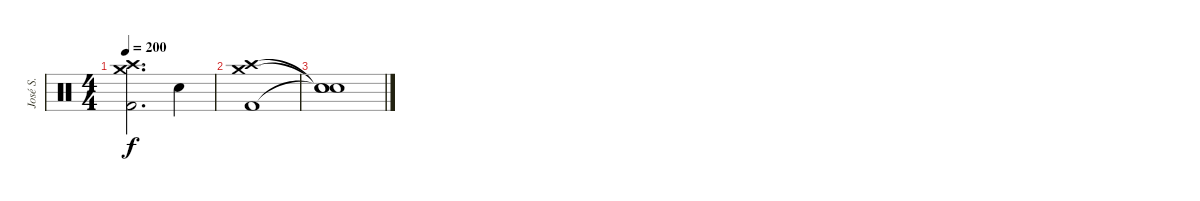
\track ("José S." "José S.") {instrument percussion}
\staff {score}
\articulation defaults
\ts (4 4)
\tempo 200
\clef neutral
\ks c
("Crash high (hit)" "Crash medium (hit)" "Kick (hit) 2").2{d dy f} "Snare (hit) 2".4 |
("Crash high (hit)" "Crash medium (hit)" "Kick (hit) 2").1 |
("Snare (hit)"{t} "Snare (hit)"{t} "Snare (hit)"{t}).1
